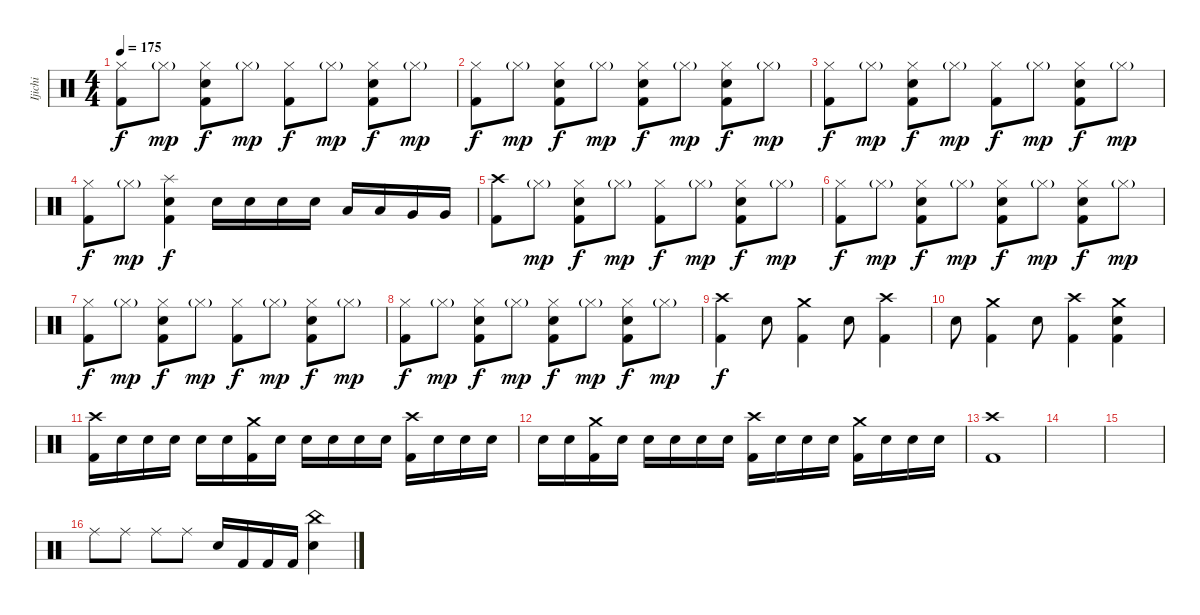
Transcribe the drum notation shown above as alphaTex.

\track ("Ijichi" "Ijichi") {instrument percussion}
\staff {score}
\articulation defaults
\ts (4 4)
\tempo 175
\clef neutral
\ks c
("Hi-Hat (closed)" "Kick (hit) 2").8{dy f} "Hi-Hat (closed)"{g}.8{dy mp} ("Hi-Hat (closed)" "Electric Snare (hit)" "Kick (hit) 2").8{dy f} "Hi-Hat (closed)"{g}.8{dy mp} ("Hi-Hat (closed)" "Kick (hit) 2").8{dy f} "Hi-Hat (closed)"{g}.8{dy mp} ("Hi-Hat (closed)" "Electric Snare (hit)" "Kick (hit) 2").8{dy f} "Hi-Hat (closed)"{g}.8{dy mp} |
("Hi-Hat (closed)" "Kick (hit) 2").8{dy f} "Hi-Hat (closed)"{g}.8{dy mp} ("Hi-Hat (closed)" "Electric Snare (hit)" "Kick (hit) 2").8{dy f} "Hi-Hat (closed)"{g}.8{dy mp} ("Hi-Hat (closed)" "Electric Snare (hit)" "Kick (hit) 2").8{dy f} "Hi-Hat (closed)"{g}.8{dy mp} ("Hi-Hat (closed)" "Electric Snare (hit)" "Kick (hit) 2").8{dy f} "Hi-Hat (closed)"{g}.8{dy mp} |
("Hi-Hat (closed)" "Kick (hit) 2").8{dy f} "Hi-Hat (closed)"{g}.8{dy mp} ("Hi-Hat (closed)" "Electric Snare (hit)" "Kick (hit) 2").8{dy f} "Hi-Hat (closed)"{g}.8{dy mp} ("Hi-Hat (closed)" "Kick (hit) 2").8{dy f} "Hi-Hat (closed)"{g}.8{dy mp} ("Hi-Hat (closed)" "Electric Snare (hit)" "Kick (hit) 2").8{dy f} "Hi-Hat (closed)"{g}.8{dy mp} |
("Hi-Hat (closed)" "Kick (hit) 2").8{dy f} "Hi-Hat (closed)"{g}.8{dy mp} ("Splash (hit)" "Electric Snare (hit)" "Kick (hit) 2").4{dy f} "Electric Snare (hit)".16 "Electric Snare (hit)".16 "Electric Snare (hit)".16 "Electric Snare (hit)".16 "Low Tom (hit)".16 "Low Tom (hit)".16 "Very Low Tom (hit)".16 "Very Low Tom (hit)".16 |
("Crash high (hit)" "Kick (hit) 2").8 "Hi-Hat (closed)"{g}.8{dy mp} ("Hi-Hat (closed)" "Electric Snare (hit)" "Kick (hit) 2").8{dy f} "Hi-Hat (closed)"{g}.8{dy mp} ("Hi-Hat (closed)" "Kick (hit) 2").8{dy f} "Hi-Hat (closed)"{g}.8{dy mp} ("Hi-Hat (closed)" "Electric Snare (hit)" "Kick (hit) 2").8{dy f} "Hi-Hat (closed)"{g}.8{dy mp} |
("Hi-Hat (closed)" "Kick (hit) 2").8{dy f} "Hi-Hat (closed)"{g}.8{dy mp} ("Hi-Hat (closed)" "Electric Snare (hit)" "Kick (hit) 2").8{dy f} "Hi-Hat (closed)"{g}.8{dy mp} ("Hi-Hat (closed)" "Electric Snare (hit)" "Kick (hit) 2").8{dy f} "Hi-Hat (closed)"{g}.8{dy mp} ("Hi-Hat (closed)" "Electric Snare (hit)" "Kick (hit) 2").8{dy f} "Hi-Hat (closed)"{g}.8{dy mp} |
("Hi-Hat (closed)" "Kick (hit) 2").8{dy f} "Hi-Hat (closed)"{g}.8{dy mp} ("Hi-Hat (closed)" "Electric Snare (hit)" "Kick (hit) 2").8{dy f} "Hi-Hat (closed)"{g}.8{dy mp} ("Hi-Hat (closed)" "Kick (hit) 2").8{dy f} "Hi-Hat (closed)"{g}.8{dy mp} ("Hi-Hat (closed)" "Electric Snare (hit)" "Kick (hit) 2").8{dy f} "Hi-Hat (closed)"{g}.8{dy mp} |
("Hi-Hat (closed)" "Kick (hit) 2").8{dy f} "Hi-Hat (closed)"{g}.8{dy mp} ("Hi-Hat (closed)" "Electric Snare (hit)" "Kick (hit) 2").8{dy f} "Hi-Hat (closed)"{g}.8{dy mp} ("Hi-Hat (closed)" "Electric Snare (hit)" "Kick (hit) 2").8{dy f} "Hi-Hat (closed)"{g}.8{dy mp} ("Hi-Hat (closed)" "Electric Snare (hit)" "Kick (hit) 2").8{dy f} "Hi-Hat (closed)"{g}.8{dy mp} |
("Crash high (hit)" "Kick (hit) 2").4{dy f} "Electric Snare (hit)".8 ("Crash medium (hit)" "Kick (hit) 2").4 "Electric Snare (hit)".8 ("Crash high (hit)" "Kick (hit) 2").4 |
"Electric Snare (hit)".8 ("Crash medium (hit)" "Kick (hit) 2").4 "Electric Snare (hit)".8 ("Crash high (hit)" "Kick (hit) 2").4 ("Crash medium (hit)" "Electric Snare (hit)" "Kick (hit) 2").4 |
("Crash high (hit)" "Kick (hit) 2").16 "Electric Snare (hit)".16 "Electric Snare (hit)".16 "Electric Snare (hit)".16 "Electric Snare (hit)".16 "Electric Snare (hit)".16 ("Crash medium (hit)" "Kick (hit) 2").16 "Electric Snare (hit)".16 "Electric Snare (hit)".16 "Electric Snare (hit)".16 "Electric Snare (hit)".16 "Electric Snare (hit)".16 ("Crash high (hit)" "Kick (hit) 2").16 "Electric Snare (hit)".16 "Electric Snare (hit)".16 "Electric Snare (hit)".16 |
"Electric Snare (hit)".16 "Electric Snare (hit)".16 ("Crash medium (hit)" "Kick (hit) 2").16 "Electric Snare (hit)".16 "Electric Snare (hit)".16 "Electric Snare (hit)".16 "Electric Snare (hit)".16 "Electric Snare (hit)".16 ("Crash high (hit)" "Kick (hit) 2").16 "Electric Snare (hit)".16 "Electric Snare (hit)".16 "Electric Snare (hit)".16 ("Crash medium (hit)" "Kick (hit) 2").16 "Electric Snare (hit)".16 "Electric Snare (hit)".16 "Electric Snare (hit)".16 |
("Crash high (hit)" "Kick (hit) 2").1 |
|
|
"Ride (middle)".8 "Ride (middle)".8 "Ride (middle)".8 "Ride (middle)".8 "Electric Snare (hit)".16 "Kick (hit) 2".16 "Kick (hit) 2".16 "Kick (hit) 2".16 ("China (hit)" "Electric Snare (hit)").4
